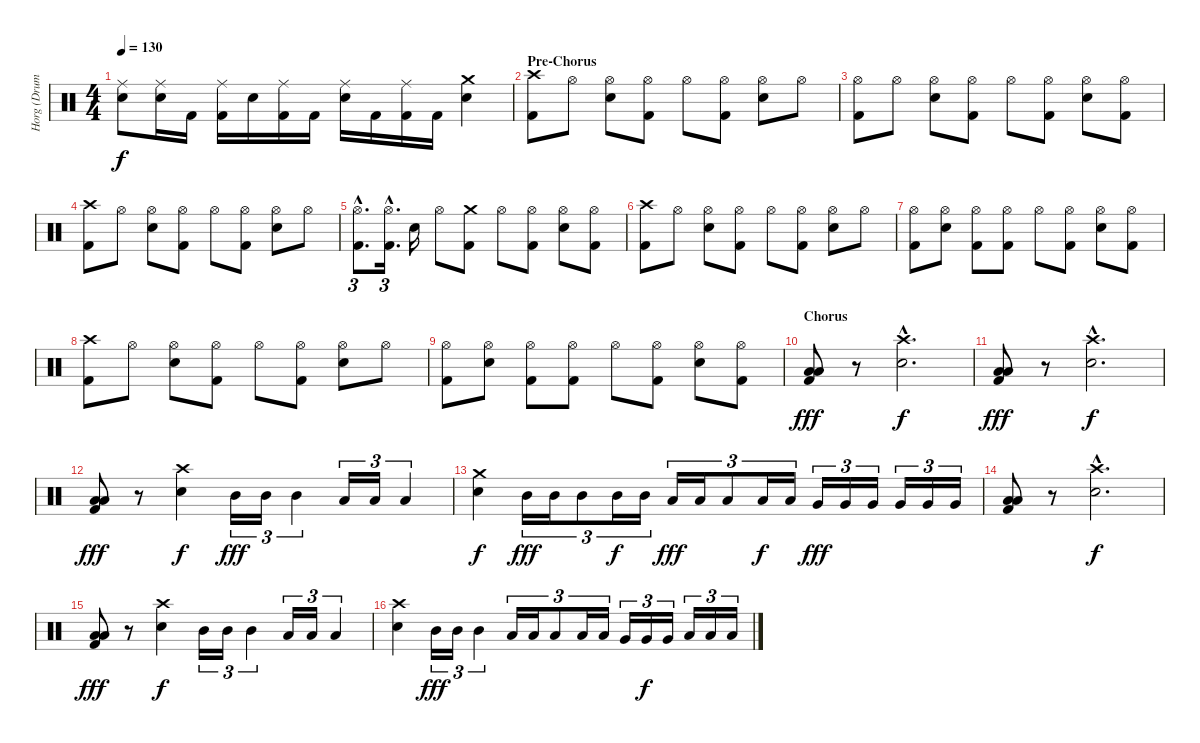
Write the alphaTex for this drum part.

\track ("Horg (Drums)" "Horg (Drum") {instrument percussion}
\staff {score}
\articulation defaults
\ts (4 4)
\tempo 130
\clef neutral
\ks c
("Ride (middle)" "Electric Snare (hit)").8{dy f} ("Ride (middle)" "Electric Snare (hit)").16 "Kick (hit) 2".16 ("Ride (middle)" "Kick (hit) 2").16 "Electric Snare (hit)".16 ("Ride (middle)" "Kick (hit) 2").16 "Kick (hit) 2".16 ("Ride (middle)" "Electric Snare (hit)").16 "Kick (hit) 2".16 ("Ride (middle)" "Kick (hit) 2").16 "Kick (hit) 2".16 ("Crash medium (hit)" "Electric Snare (hit)").4 |
\section ("" "Pre-Chorus")
("Crash high (hit)" "Kick (hit) 2").8 "Hi-Hat (open)".8 ("Hi-Hat (open)" "Electric Snare (hit)").8 ("Hi-Hat (open)" "Kick (hit) 2").8 "Hi-Hat (open)".8 ("Hi-Hat (open)" "Kick (hit) 2").8 ("Hi-Hat (open)" "Electric Snare (hit)").8 "Hi-Hat (open)".8 |
("Hi-Hat (open)" "Kick (hit) 2").8 "Hi-Hat (open)".8 ("Hi-Hat (open)" "Electric Snare (hit)").8 ("Hi-Hat (open)" "Kick (hit) 2").8 "Hi-Hat (open)".8 ("Hi-Hat (open)" "Kick (hit) 2").8 ("Hi-Hat (open)" "Electric Snare (hit)").8 ("Hi-Hat (open)" "Kick (hit) 2").8 |
("Crash high (hit)" "Kick (hit) 2").8 "Hi-Hat (open)".8 ("Hi-Hat (open)" "Electric Snare (hit)").8 ("Hi-Hat (open)" "Kick (hit) 2").8 "Hi-Hat (open)".8 ("Hi-Hat (open)" "Kick (hit) 2").8 ("Hi-Hat (open)" "Electric Snare (hit)").8 "Hi-Hat (open)".8 |
("Hi-Hat (open)"{hac} "Kick (hit) 2"{hac}).8{d tu (3 2)} ("Hi-Hat (open)"{hac} "Kick (hit) 2"{hac}).16{d tu (3 2)} "Electric Snare (hit)".16 "Hi-Hat (open)".8 ("Crash medium (hit)" "Kick (hit) 2").8 "Hi-Hat (open)".8 ("Hi-Hat (open)" "Kick (hit) 2").8 ("Hi-Hat (open)" "Electric Snare (hit)").8 ("Hi-Hat (open)" "Kick (hit) 2").8 |
("Crash high (hit)" "Kick (hit) 2").8 "Hi-Hat (open)".8 ("Hi-Hat (open)" "Electric Snare (hit)").8 ("Hi-Hat (open)" "Kick (hit) 2").8 "Hi-Hat (open)".8 ("Hi-Hat (open)" "Kick (hit) 2").8 ("Hi-Hat (open)" "Electric Snare (hit)").8 "Hi-Hat (open)".8 |
("Hi-Hat (open)" "Kick (hit) 2").8 ("Hi-Hat (open)" "Electric Snare (hit)").8 ("Hi-Hat (open)" "Kick (hit) 2").8 ("Hi-Hat (open)" "Kick (hit) 2").8 "Hi-Hat (open)".8 ("Hi-Hat (open)" "Kick (hit) 2").8 ("Hi-Hat (open)" "Electric Snare (hit)").8 ("Hi-Hat (open)" "Kick (hit) 2").8 |
("Crash high (hit)" "Kick (hit) 2").8 "Hi-Hat (open)".8 ("Hi-Hat (open)" "Electric Snare (hit)").8 ("Hi-Hat (open)" "Kick (hit) 2").8 "Hi-Hat (open)".8 ("Hi-Hat (open)" "Kick (hit) 2").8 ("Hi-Hat (open)" "Electric Snare (hit)").8 "Hi-Hat (open)".8 |
("Hi-Hat (open)" "Kick (hit) 2").8 ("Hi-Hat (open)" "Electric Snare (hit)").8 ("Hi-Hat (open)" "Kick (hit) 2").8 ("Hi-Hat (open)" "Kick (hit) 2").8 "Hi-Hat (open)".8 ("Hi-Hat (open)" "Kick (hit) 2").8 ("Hi-Hat (open)" "Electric Snare (hit)").8 ("Hi-Hat (open)" "Kick (hit) 2").8 |
\section ("" "Chorus")
("Low Floor Tom (hit)" "Low Floor Tom (hit)" "Kick (hit) 2").8{dy fff} r.8 ("Crash high (hit)"{hac} "Electric Snare (hit)"{hac}).2{d dy f} |
("Low Floor Tom (hit)" "Low Floor Tom (hit)" "Kick (hit) 2").8{dy fff} r.8 ("Crash high (hit)"{hac} "Electric Snare (hit)"{hac}).2{d dy f} |
("Low Floor Tom (hit)" "Low Floor Tom (hit)" "Kick (hit) 2").8{dy fff} r.8 ("Crash high (hit)" "Electric Snare (hit)").4{dy f} "Mid Tom (hit)".16{tu (3 2) dy fff} "Mid Tom (hit)".16{tu (3 2)} "Mid Tom (hit)".4{tu (3 2)} "Low Tom (hit)".16{tu (3 2)} "Low Tom (hit)".16{tu (3 2)} "Low Tom (hit)".4{tu (3 2)} |
("Crash medium (hit)" "Electric Snare (hit)").4{dy f} "Mid Tom (hit)".16{tu (3 2) dy fff} "Mid Tom (hit)".16{tu (3 2)} "Mid Tom (hit)".8{tu (3 2)} "Mid Tom (hit)".16{tu (3 2) dy f} "Mid Tom (hit)".16{tu (3 2)} "Low Tom (hit)".16{tu (3 2) dy fff} "Low Tom (hit)".16{tu (3 2)} "Low Tom (hit)".8{tu (3 2)} "Low Tom (hit)".16{tu (3 2) dy f} "Low Tom (hit)".16{tu (3 2)} "Very Low Tom (hit)".16{tu (3 2) dy fff} "Very Low Tom (hit)".16{tu (3 2)} "Very Low Tom (hit)".16{tu (3 2)} "Very Low Tom (hit)".16{tu (3 2)} "Very Low Tom (hit)".16{tu (3 2)} "Very Low Tom (hit)".16{tu (3 2)} |
("Low Floor Tom (hit)" "Low Floor Tom (hit)" "Kick (hit) 2").8 r.8 ("Crash high (hit)"{hac} "Electric Snare (hit)"{hac}).2{d dy f} |
("Low Floor Tom (hit)" "Low Floor Tom (hit)" "Kick (hit) 2").8{dy fff} r.8 ("Crash high (hit)" "Electric Snare (hit)").4{dy f} "Mid Tom (hit)".16{tu (3 2)} "Mid Tom (hit)".16{tu (3 2)} "Mid Tom (hit)".4{tu (3 2)} "Low Tom (hit)".16{tu (3 2)} "Low Tom (hit)".16{tu (3 2)} "Low Tom (hit)".4{tu (3 2)} |
("Crash high (hit)" "Electric Snare (hit)").4 "Mid Tom (hit)".16{tu (3 2) dy fff} "Mid Tom (hit)".16{tu (3 2)} "Mid Tom (hit)".4{tu (3 2)} "Low Tom (hit)".16{tu (3 2)} "Low Tom (hit)".16{tu (3 2)} "Low Tom (hit)".8{tu (3 2)} "Low Tom (hit)".16{tu (3 2)} "Low Tom (hit)".16{tu (3 2)} "Very Low Tom (hit)".16{tu (3 2)} "Very Low Tom (hit)".16{tu (3 2) dy f} "Very Low Tom (hit)".16{tu (3 2)} "Low Floor Tom (hit)".16{tu (3 2)} "Low Floor Tom (hit)".16{tu (3 2)} "Low Floor Tom (hit)".16{tu (3 2)}
